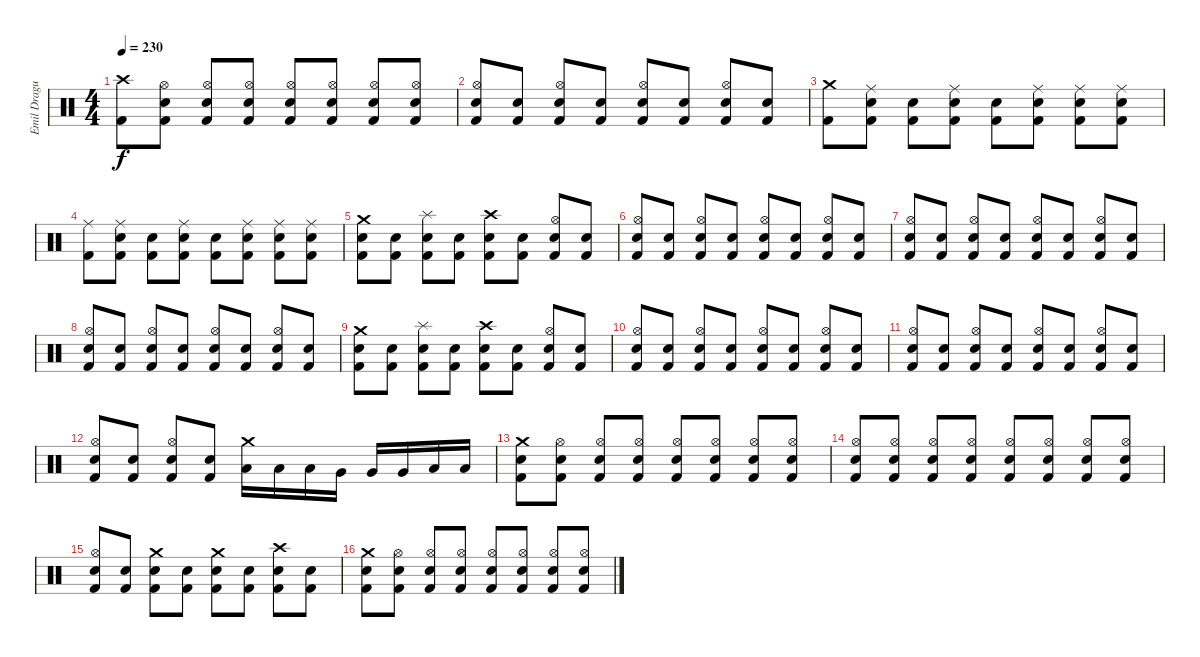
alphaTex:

\track ("Emil Dragutinovic" "Emil Dragu") {instrument percussion}
\staff {score}
\articulation defaults
\ts (4 4)
\tempo 230
\clef neutral
\ks c
("Crash high (hit)" "Kick (hit) 2").8{dy f} ("Hi-Hat (open)" "Electric Snare (hit)" "Kick (hit) 2").8 ("Hi-Hat (open)" "Electric Snare (hit)" "Kick (hit) 2").8 ("Hi-Hat (open)" "Electric Snare (hit)" "Kick (hit) 2").8 ("Hi-Hat (open)" "Electric Snare (hit)" "Kick (hit) 2").8 ("Hi-Hat (open)" "Electric Snare (hit)" "Kick (hit) 2").8 ("Hi-Hat (open)" "Electric Snare (hit)" "Kick (hit) 2").8 ("Hi-Hat (open)" "Electric Snare (hit)" "Kick (hit) 2").8 |
("Hi-Hat (open)" "Electric Snare (hit)" "Kick (hit) 2").8 ("Electric Snare (hit)" "Kick (hit) 2").8 ("Hi-Hat (open)" "Electric Snare (hit)" "Kick (hit) 2").8 ("Electric Snare (hit)" "Kick (hit) 2").8 ("Hi-Hat (open)" "Electric Snare (hit)" "Kick (hit) 2").8 ("Electric Snare (hit)" "Kick (hit) 2").8 ("Hi-Hat (open)" "Electric Snare (hit)" "Kick (hit) 2").8 ("Electric Snare (hit)" "Kick (hit) 2").8 |
("Crash medium (hit)" "Kick (hit) 2").8 ("Ride (middle)" "Electric Snare (hit)" "Kick (hit) 2").8 ("Electric Snare (hit)" "Kick (hit) 2").8 ("Ride (middle)" "Electric Snare (hit)" "Kick (hit) 2").8 ("Electric Snare (hit)" "Kick (hit) 2").8 ("Ride (middle)" "Electric Snare (hit)" "Kick (hit) 2").8 ("Ride (middle)" "Electric Snare (hit)" "Kick (hit) 2").8 ("Ride (middle)" "Electric Snare (hit)" "Kick (hit) 2").8 |
("Ride (middle)" "Kick (hit) 2").8 ("Ride (middle)" "Electric Snare (hit)" "Kick (hit) 2").8 ("Electric Snare (hit)" "Kick (hit) 2").8 ("Ride (middle)" "Electric Snare (hit)" "Kick (hit) 2").8 ("Electric Snare (hit)" "Kick (hit) 2").8 ("Ride (middle)" "Electric Snare (hit)" "Kick (hit) 2").8 ("Ride (middle)" "Electric Snare (hit)" "Kick (hit) 2").8 ("Ride (middle)" "Electric Snare (hit)" "Kick (hit) 2").8 |
("Crash medium (hit)" "Electric Snare (hit)" "Kick (hit) 2").8 ("Electric Snare (hit)" "Kick (hit) 2").8 ("Splash (hit)" "Electric Snare (hit)" "Kick (hit) 2").8 ("Electric Snare (hit)" "Kick (hit) 2").8 ("Crash high (hit)" "Electric Snare (hit)" "Kick (hit) 2").8 ("Electric Snare (hit)" "Kick (hit) 2").8 ("Hi-Hat (open)" "Electric Snare (hit)" "Kick (hit) 2").8 ("Electric Snare (hit)" "Kick (hit) 2").8 |
("Hi-Hat (open)" "Electric Snare (hit)" "Kick (hit) 2").8 ("Electric Snare (hit)" "Kick (hit) 2").8 ("Hi-Hat (open)" "Electric Snare (hit)" "Kick (hit) 2").8 ("Electric Snare (hit)" "Kick (hit) 2").8 ("Hi-Hat (open)" "Electric Snare (hit)" "Kick (hit) 2").8 ("Electric Snare (hit)" "Kick (hit) 2").8 ("Hi-Hat (open)" "Electric Snare (hit)" "Kick (hit) 2").8 ("Electric Snare (hit)" "Kick (hit) 2").8 |
("Hi-Hat (open)" "Electric Snare (hit)" "Kick (hit) 2").8 ("Electric Snare (hit)" "Kick (hit) 2").8 ("Hi-Hat (open)" "Electric Snare (hit)" "Kick (hit) 2").8 ("Electric Snare (hit)" "Kick (hit) 2").8 ("Hi-Hat (open)" "Electric Snare (hit)" "Kick (hit) 2").8 ("Electric Snare (hit)" "Kick (hit) 2").8 ("Hi-Hat (open)" "Electric Snare (hit)" "Kick (hit) 2").8 ("Electric Snare (hit)" "Kick (hit) 2").8 |
("Hi-Hat (open)" "Electric Snare (hit)" "Kick (hit) 2").8 ("Electric Snare (hit)" "Kick (hit) 2").8 ("Hi-Hat (open)" "Electric Snare (hit)" "Kick (hit) 2").8 ("Electric Snare (hit)" "Kick (hit) 2").8 ("Hi-Hat (open)" "Electric Snare (hit)" "Kick (hit) 2").8 ("Electric Snare (hit)" "Kick (hit) 2").8 ("Hi-Hat (open)" "Electric Snare (hit)" "Kick (hit) 2").8 ("Electric Snare (hit)" "Kick (hit) 2").8 |
("Crash medium (hit)" "Electric Snare (hit)" "Kick (hit) 2").8 ("Electric Snare (hit)" "Kick (hit) 2").8 ("Splash (hit)" "Electric Snare (hit)" "Kick (hit) 2").8 ("Electric Snare (hit)" "Kick (hit) 2").8 ("Crash high (hit)" "Electric Snare (hit)" "Kick (hit) 2").8 ("Electric Snare (hit)" "Kick (hit) 2").8 ("Hi-Hat (open)" "Electric Snare (hit)" "Kick (hit) 2").8 ("Electric Snare (hit)" "Kick (hit) 2").8 |
("Hi-Hat (open)" "Electric Snare (hit)" "Kick (hit) 2").8 ("Electric Snare (hit)" "Kick (hit) 2").8 ("Hi-Hat (open)" "Electric Snare (hit)" "Kick (hit) 2").8 ("Electric Snare (hit)" "Kick (hit) 2").8 ("Hi-Hat (open)" "Electric Snare (hit)" "Kick (hit) 2").8 ("Electric Snare (hit)" "Kick (hit) 2").8 ("Hi-Hat (open)" "Electric Snare (hit)" "Kick (hit) 2").8 ("Electric Snare (hit)" "Kick (hit) 2").8 |
("Hi-Hat (open)" "Electric Snare (hit)" "Kick (hit) 2").8 ("Electric Snare (hit)" "Kick (hit) 2").8 ("Hi-Hat (open)" "Electric Snare (hit)" "Kick (hit) 2").8 ("Electric Snare (hit)" "Kick (hit) 2").8 ("Hi-Hat (open)" "Electric Snare (hit)" "Kick (hit) 2").8 ("Electric Snare (hit)" "Kick (hit) 2").8 ("Hi-Hat (open)" "Electric Snare (hit)" "Kick (hit) 2").8 ("Electric Snare (hit)" "Kick (hit) 2").8 |
("Hi-Hat (open)" "Electric Snare (hit)" "Kick (hit) 2").8 ("Electric Snare (hit)" "Kick (hit) 2").8 ("Hi-Hat (open)" "Electric Snare (hit)" "Kick (hit) 2").8 ("Electric Snare (hit)" "Kick (hit) 2").8 ("Crash medium (hit)" "Low Tom (hit)").16 "Low Tom (hit)".16 "Low Tom (hit)".16 "Very Low Tom (hit)".16 "Very Low Tom (hit)".16 "Very Low Tom (hit)".16 "Low Floor Tom (hit)".16 "Low Floor Tom (hit)".16 |
("Crash medium (hit)" "Electric Snare (hit)" "Kick (hit) 2").8 ("Hi-Hat (open)" "Electric Snare (hit)" "Kick (hit) 2").8 ("Hi-Hat (open)" "Electric Snare (hit)" "Kick (hit) 2").8 ("Hi-Hat (open)" "Electric Snare (hit)" "Kick (hit) 2").8 ("Hi-Hat (open)" "Electric Snare (hit)" "Kick (hit) 2").8 ("Hi-Hat (open)" "Electric Snare (hit)" "Kick (hit) 2").8 ("Hi-Hat (open)" "Electric Snare (hit)" "Kick (hit) 2").8 ("Hi-Hat (open)" "Electric Snare (hit)" "Kick (hit) 2").8 |
("Hi-Hat (open)" "Electric Snare (hit)" "Kick (hit) 2").8 ("Hi-Hat (open)" "Electric Snare (hit)" "Kick (hit) 2").8 ("Hi-Hat (open)" "Electric Snare (hit)" "Kick (hit) 2").8 ("Hi-Hat (open)" "Electric Snare (hit)" "Kick (hit) 2").8 ("Hi-Hat (open)" "Electric Snare (hit)" "Kick (hit) 2").8 ("Hi-Hat (open)" "Electric Snare (hit)" "Kick (hit) 2").8 ("Hi-Hat (open)" "Electric Snare (hit)" "Kick (hit) 2").8 ("Hi-Hat (open)" "Electric Snare (hit)" "Kick (hit) 2").8 |
("Hi-Hat (open)" "Electric Snare (hit)" "Kick (hit) 2").8 ("Electric Snare (hit)" "Kick (hit) 2").8 ("Crash medium (hit)" "Electric Snare (hit)" "Kick (hit) 2").8 ("Electric Snare (hit)" "Kick (hit) 2").8 ("Crash medium (hit)" "Electric Snare (hit)" "Kick (hit) 2").8 ("Electric Snare (hit)" "Kick (hit) 2").8 ("Crash high (hit)" "Electric Snare (hit)" "Kick (hit) 2").8 ("Electric Snare (hit)" "Kick (hit) 2").8 |
("Crash medium (hit)" "Electric Snare (hit)" "Kick (hit) 2").8 ("Hi-Hat (open)" "Electric Snare (hit)" "Kick (hit) 2").8 ("Hi-Hat (open)" "Electric Snare (hit)" "Kick (hit) 2").8 ("Hi-Hat (open)" "Electric Snare (hit)" "Kick (hit) 2").8 ("Hi-Hat (open)" "Electric Snare (hit)" "Kick (hit) 2").8 ("Hi-Hat (open)" "Electric Snare (hit)" "Kick (hit) 2").8 ("Hi-Hat (open)" "Electric Snare (hit)" "Kick (hit) 2").8 ("Hi-Hat (open)" "Electric Snare (hit)" "Kick (hit) 2").8
